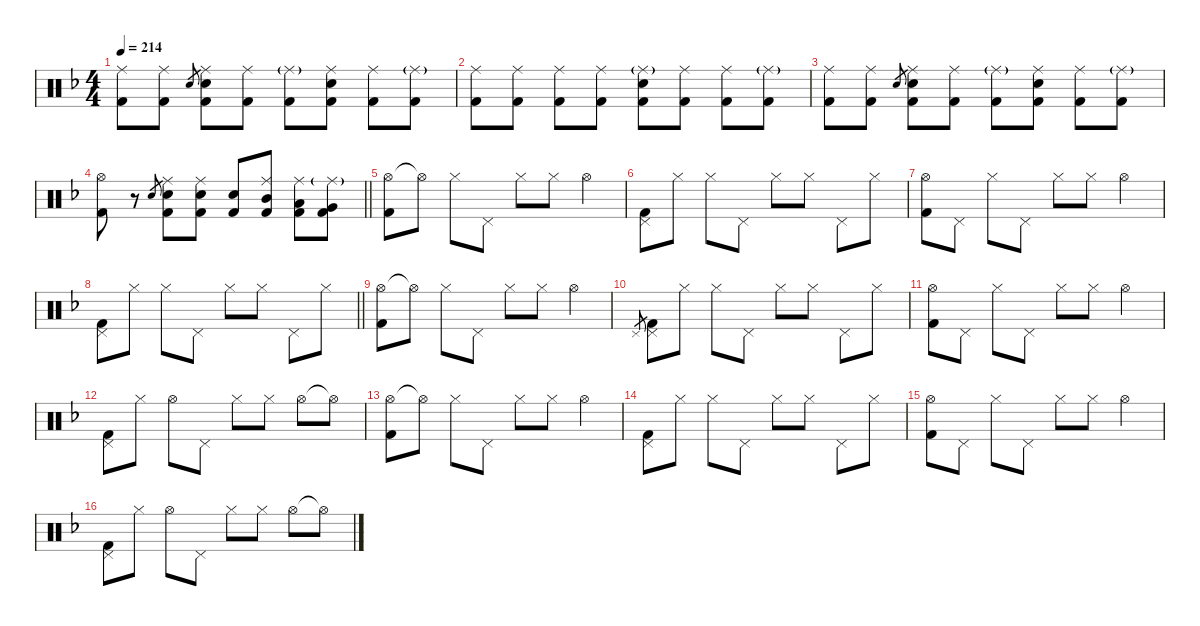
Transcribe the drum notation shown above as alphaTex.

\hideDynamics
\bracketExtendMode nobrackets
\singleTrackTrackNamePolicy hidden
\multiTrackTrackNamePolicy hidden
\firstSystemTrackNameMode fullname
\firstSystemTrackNameOrientation horizontal
\otherSystemsTrackNameOrientation horizontal
\track ("Drumkit" "Drums") {defaultSystemsLayout 4 instrument percussion}
\staff {score}
\articulation defaults
\ts (4 4)
\tempo 214
\clef neutral
\ks dminor
("Ride (middle)"{acc forcenatural} "Kick (hit) 2"{acc forcenatural}).8{dy mf beam Down} ("Ride (middle)"{acc forcenatural} "Kick (hit) 2"{acc forcenatural}).8{beam Down} "Snare (hit) 2"{acc forcenatural}.8{gr dy mp beam Up} ("Ride (middle)"{acc forcenatural} "Snare (hit) 2"{acc forcenatural} "Kick (hit) 2"{acc forcenatural}).8{dy mf beam Down} ("Ride (middle)"{acc forcenatural} "Kick (hit) 2"{acc forcenatural}).8{beam Down} ("Ride (middle)"{g acc forcenatural} "Kick (hit) 2"{acc forcenatural}).8{dy f beam Down} ("Ride (middle)"{acc forcenatural} "Snare (hit) 2"{acc forcenatural} "Kick (hit) 2"{acc forcenatural}).8{dy mf beam Down} ("Ride (middle)"{acc forcenatural} "Kick (hit) 2"{acc forcenatural}).8{beam Down} ("Ride (middle)"{g acc forcenatural} "Kick (hit) 2"{acc forcenatural}).8{dy f beam Down} |
("Ride (middle)"{acc forcenatural} "Kick (hit) 2"{acc forcenatural}).8{dy mf beam Down} ("Ride (middle)"{acc forcenatural} "Kick (hit) 2"{acc forcenatural}).8{beam Down} ("Ride (middle)"{acc forcenatural} "Kick (hit) 2"{acc forcenatural}).8{beam Down} ("Ride (middle)"{acc forcenatural} "Kick (hit) 2"{acc forcenatural}).8{beam Down} ("Ride (middle)"{g acc forcenatural} "Snare (hit) 2"{acc forcenatural} "Kick (hit) 2"{acc forcenatural}).8{dy f beam Down} ("Ride (middle)"{acc forcenatural} "Kick (hit) 2"{acc forcenatural}).8{dy mf beam Down} ("Ride (middle)"{acc forcenatural} "Kick (hit) 2"{acc forcenatural}).8{beam Down} ("Ride (middle)"{g acc forcenatural} "Kick (hit) 2"{acc forcenatural}).8{dy f beam Down} |
("Ride (middle)"{acc forcenatural} "Kick (hit) 2"{acc forcenatural}).8{dy mf beam Down} ("Ride (middle)"{acc forcenatural} "Kick (hit) 2"{acc forcenatural}).8{beam Down} "Snare (hit) 2"{acc forcenatural}.8{gr dy mp beam Up} ("Ride (middle)"{acc forcenatural} "Snare (hit) 2"{acc forcenatural} "Kick (hit) 2"{acc forcenatural}).8{dy mf beam Down} ("Ride (middle)"{acc forcenatural} "Kick (hit) 2"{acc forcenatural}).8{beam Down} ("Ride (middle)"{g acc forcenatural} "Kick (hit) 2"{acc forcenatural}).8{dy f beam Down} ("Ride (middle)"{acc forcenatural} "Snare (hit) 2"{acc forcenatural} "Kick (hit) 2"{acc forcenatural}).8{dy mf beam Down} ("Ride (middle)"{acc forcenatural} "Kick (hit) 2"{acc forcenatural}).8{beam Down} ("Ride (middle)"{g acc forcenatural} "Kick (hit) 2"{acc forcenatural}).8{dy f beam Down} |
\barLineRight lightlight
("Hi-Hat (open)"{acc forcenatural} "Kick (hit) 2"{acc forcenatural}).8{dy mf beam Down} r.8{beam Down} "Snare (hit) 2"{acc forcenatural}.8{gr dy mp beam Up} ("Ride (middle)"{acc forcenatural} "Snare (hit) 2"{acc forcenatural} "Kick (hit) 2"{acc forcenatural}).8{dy mf beam Down} ("Ride (middle)"{acc forcenatural} "Snare (hit) 2"{acc forcenatural} "Kick (hit) 2"{acc forcenatural}).8{beam Down} ("Snare (hit) 2"{acc forcenatural} "Kick (hit) 2"{acc forcenatural}).8{dy f beam Up} ("Ride (middle)"{acc forcenatural} "Mid Tom (hit)"{acc forcenatural} "Kick (hit) 2"{acc forcenatural}).8{dy mf beam Up} ("Ride (middle)"{acc forcenatural} "Low Tom (hit)"{acc forcenatural} "Kick (hit) 2"{acc forcenatural}).8{beam Down} ("Ride (middle)"{g acc forcenatural} "Very Low Tom (hit)"{acc forcenatural} "Kick (hit) 2"{acc forcenatural}).8{dy f beam Down} |
("Hi-Hat (open)"{acc forcenatural} "Kick (hit) 2"{acc forcenatural}).8{dy mf beam Down} "Hi-Hat (open)"{t acc forcenatural}.8{dy f beam Down} "Hi-Hat (closed)"{acc forcenatural}.8{dy mp beam Down} "Pedal Hi-Hat (hit)"{acc forcenatural}.8{beam Down} "Hi-Hat (closed)"{acc forcenatural}.8{beam Down} "Hi-Hat (closed)"{acc forcenatural}.8{beam Down} "Hi-Hat (open)"{acc forcenatural}.4{dy mf beam Down} |
("Pedal Hi-Hat (hit)"{acc forcenatural} "Kick (hit) 2"{acc forcenatural}).8{beam Down} "Hi-Hat (closed)"{acc forcenatural}.8{dy mp beam Down} "Hi-Hat (closed)"{acc forcenatural}.8{beam Down} "Pedal Hi-Hat (hit)"{acc forcenatural}.8{dy mf beam Down} "Hi-Hat (closed)"{acc forcenatural}.8{dy mp beam Down} "Hi-Hat (closed)"{acc forcenatural}.8{beam Down} "Pedal Hi-Hat (hit)"{acc forcenatural}.8{dy mf beam Down} "Hi-Hat (closed)"{acc forcenatural}.8{dy mp beam Down} |
("Hi-Hat (open)"{acc forcenatural} "Kick (hit) 2"{acc forcenatural}).8{dy mf beam Down} "Pedal Hi-Hat (hit)"{acc forcenatural}.8{beam Down} "Hi-Hat (closed)"{acc forcenatural}.8{dy mp beam Down} "Pedal Hi-Hat (hit)"{acc forcenatural}.8{beam Down} "Hi-Hat (closed)"{acc forcenatural}.8{beam Down} "Hi-Hat (closed)"{acc forcenatural}.8{beam Down} "Hi-Hat (open)"{acc forcenatural}.4{dy mf beam Down} |
\barLineRight lightlight
("Pedal Hi-Hat (hit)"{acc forcenatural} "Kick (hit) 2"{acc forcenatural}).8{beam Down} "Hi-Hat (closed)"{acc forcenatural}.8{dy mp beam Down} "Hi-Hat (closed)"{acc forcenatural}.8{beam Down} "Pedal Hi-Hat (hit)"{acc forcenatural}.8{dy mf beam Down} "Hi-Hat (closed)"{acc forcenatural}.8{dy mp beam Down} "Hi-Hat (closed)"{acc forcenatural}.8{beam Down} "Pedal Hi-Hat (hit)"{acc forcenatural}.8{dy mf beam Down} "Hi-Hat (closed)"{acc forcenatural}.8{dy mp beam Down} |
("Hi-Hat (open)"{acc forcenatural} "Kick (hit) 2"{acc forcenatural}).8{dy mf beam Down} "Hi-Hat (open)"{t acc forcenatural}.8{dy f beam Down} "Hi-Hat (closed)"{acc forcenatural}.8{dy mp beam Down} "Pedal Hi-Hat (hit)"{acc forcenatural}.8{beam Down} "Hi-Hat (closed)"{acc forcenatural}.8{beam Down} "Hi-Hat (closed)"{acc forcenatural}.8{beam Down} "Hi-Hat (open)"{acc forcenatural}.4{dy mf beam Down} |
"Pedal Hi-Hat (hit)"{acc forcenatural}.8{gr dy p beam Up} ("Pedal Hi-Hat (hit)"{acc forcenatural} "Kick (hit) 2"{acc forcenatural}).8{dy mf beam Down} "Hi-Hat (closed)"{acc forcenatural}.8{dy mp beam Down} "Hi-Hat (closed)"{acc forcenatural}.8{beam Down} "Pedal Hi-Hat (hit)"{acc forcenatural}.8{dy mf beam Down} "Hi-Hat (closed)"{acc forcenatural}.8{dy mp beam Down} "Hi-Hat (closed)"{acc forcenatural}.8{beam Down} "Pedal Hi-Hat (hit)"{acc forcenatural}.8{dy mf beam Down} "Hi-Hat (closed)"{acc forcenatural}.8{dy mp beam Down} |
("Hi-Hat (open)"{acc forcenatural} "Kick (hit) 2"{acc forcenatural}).8{dy mf beam Down} "Pedal Hi-Hat (hit)"{acc forcenatural}.8{beam Down} "Hi-Hat (closed)"{acc forcenatural}.8{dy mp beam Down} "Pedal Hi-Hat (hit)"{acc forcenatural}.8{beam Down} "Hi-Hat (closed)"{acc forcenatural}.8{beam Down} "Hi-Hat (closed)"{acc forcenatural}.8{beam Down} "Hi-Hat (open)"{acc forcenatural}.4{dy mf beam Down} |
("Pedal Hi-Hat (hit)"{acc forcenatural} "Kick (hit) 2"{acc forcenatural}).8{beam Down} "Hi-Hat (closed)"{acc forcenatural}.8{dy mp beam Down} "Hi-Hat (open)"{acc forcenatural}.8{dy mf beam Down} "Pedal Hi-Hat (hit)"{acc forcenatural}.8{dy f beam Down} "Hi-Hat (closed)"{acc forcenatural}.8{dy mp beam Down} "Hi-Hat (closed)"{acc forcenatural}.8{beam Down} "Hi-Hat (open)"{acc forcenatural}.8{dy mf beam Down} "Hi-Hat (open)"{t acc forcenatural}.8{dy f beam Down} |
("Hi-Hat (open)"{acc forcenatural} "Kick (hit) 2"{acc forcenatural}).8{dy mf beam Down} "Hi-Hat (open)"{t acc forcenatural}.8{dy f beam Down} "Hi-Hat (closed)"{acc forcenatural}.8{dy mp beam Down} "Pedal Hi-Hat (hit)"{acc forcenatural}.8{beam Down} "Hi-Hat (closed)"{acc forcenatural}.8{beam Down} "Hi-Hat (closed)"{acc forcenatural}.8{beam Down} "Hi-Hat (open)"{acc forcenatural}.4{dy mf beam Down} |
("Pedal Hi-Hat (hit)"{acc forcenatural} "Kick (hit) 2"{acc forcenatural}).8{beam Down} "Hi-Hat (closed)"{acc forcenatural}.8{dy mp beam Down} "Hi-Hat (closed)"{acc forcenatural}.8{beam Down} "Pedal Hi-Hat (hit)"{acc forcenatural}.8{dy mf beam Down} "Hi-Hat (closed)"{acc forcenatural}.8{dy mp beam Down} "Hi-Hat (closed)"{acc forcenatural}.8{beam Down} "Pedal Hi-Hat (hit)"{acc forcenatural}.8{dy mf beam Down} "Hi-Hat (closed)"{acc forcenatural}.8{dy mp beam Down} |
("Hi-Hat (open)"{acc forcenatural} "Kick (hit) 2"{acc forcenatural}).8{dy mf beam Down} "Pedal Hi-Hat (hit)"{acc forcenatural}.8{beam Down} "Hi-Hat (closed)"{acc forcenatural}.8{dy mp beam Down} "Pedal Hi-Hat (hit)"{acc forcenatural}.8{beam Down} "Hi-Hat (closed)"{acc forcenatural}.8{beam Down} "Hi-Hat (closed)"{acc forcenatural}.8{beam Down} "Hi-Hat (open)"{acc forcenatural}.4{dy mf beam Down} |
("Pedal Hi-Hat (hit)"{acc forcenatural} "Kick (hit) 2"{acc forcenatural}).8{beam Down} "Hi-Hat (closed)"{acc forcenatural}.8{dy mp beam Down} "Hi-Hat (open)"{acc forcenatural}.8{dy mf beam Down} "Pedal Hi-Hat (hit)"{acc forcenatural}.8{dy f beam Down} "Hi-Hat (closed)"{acc forcenatural}.8{dy mp beam Down} "Hi-Hat (closed)"{acc forcenatural}.8{beam Down} "Hi-Hat (open)"{acc forcenatural}.8{dy mf beam Down} "Hi-Hat (open)"{t acc forcenatural}.8{dy f beam Down}
